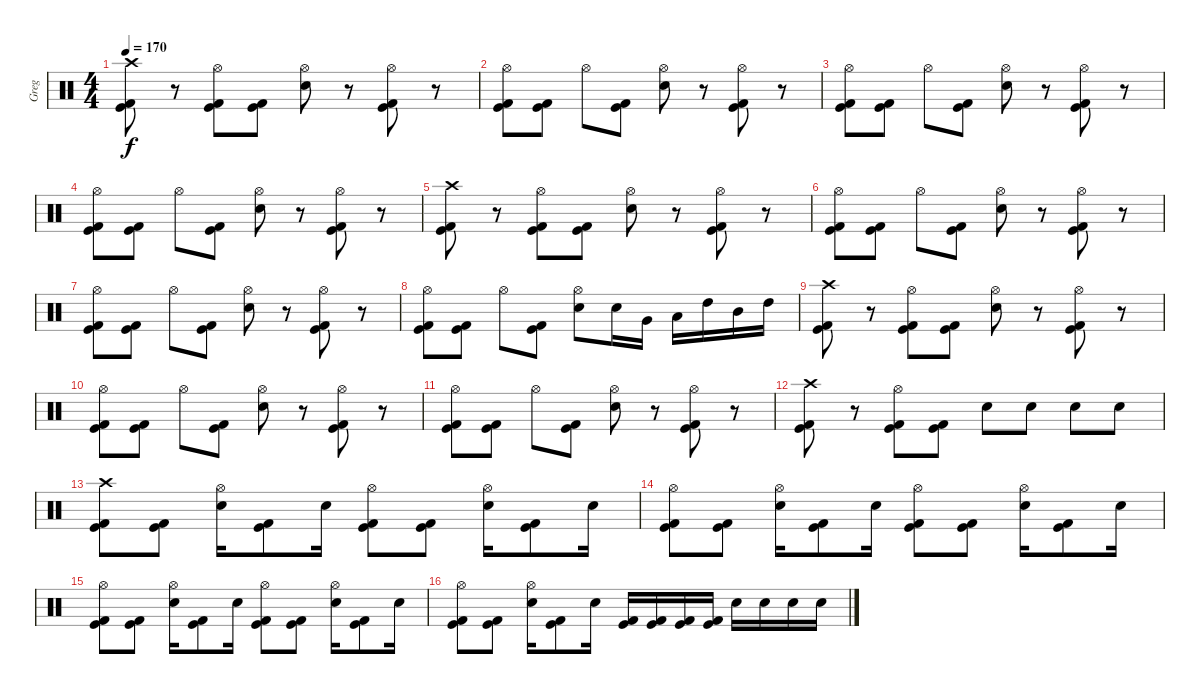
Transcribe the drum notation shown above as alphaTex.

\track ("Greg" "Greg") {instrument percussion}
\staff {score}
\articulation defaults
\ts (4 4)
\tempo 170
\clef neutral
\ks c
("Crash high (hit)" "Kick (hit)" "Kick (hit) 2").8{dy f} r.8 ("Hi-Hat (open)" "Kick (hit)" "Kick (hit) 2").8 ("Kick (hit)" "Kick (hit) 2").8 ("Hi-Hat (open)" "Snare (hit) 2").8 r.8 ("Hi-Hat (open)" "Kick (hit)" "Kick (hit) 2").8 r.8 |
("Hi-Hat (open)" "Kick (hit)" "Kick (hit) 2").8 ("Kick (hit)" "Kick (hit) 2").8 "Hi-Hat (open)".8 ("Kick (hit)" "Kick (hit) 2").8 ("Hi-Hat (open)" "Snare (hit) 2").8 r.8 ("Hi-Hat (open)" "Kick (hit)" "Kick (hit) 2").8 r.8 |
("Hi-Hat (open)" "Kick (hit)" "Kick (hit) 2").8 ("Kick (hit)" "Kick (hit) 2").8 "Hi-Hat (open)".8 ("Kick (hit)" "Kick (hit) 2").8 ("Hi-Hat (open)" "Snare (hit) 2").8 r.8 ("Hi-Hat (open)" "Kick (hit)" "Kick (hit) 2").8 r.8 |
("Hi-Hat (open)" "Kick (hit)" "Kick (hit) 2").8 ("Kick (hit)" "Kick (hit) 2").8 "Hi-Hat (open)".8 ("Kick (hit)" "Kick (hit) 2").8 ("Hi-Hat (open)" "Snare (hit) 2").8 r.8 ("Hi-Hat (open)" "Kick (hit)" "Kick (hit) 2").8 r.8 |
("Crash high (hit)" "Kick (hit)" "Kick (hit) 2").8 r.8 ("Hi-Hat (open)" "Kick (hit)" "Kick (hit) 2").8 ("Kick (hit)" "Kick (hit) 2").8 ("Hi-Hat (open)" "Snare (hit) 2").8 r.8 ("Hi-Hat (open)" "Kick (hit)" "Kick (hit) 2").8 r.8 |
("Hi-Hat (open)" "Kick (hit)" "Kick (hit) 2").8 ("Kick (hit)" "Kick (hit) 2").8 "Hi-Hat (open)".8 ("Kick (hit)" "Kick (hit) 2").8 ("Hi-Hat (open)" "Snare (hit) 2").8 r.8 ("Hi-Hat (open)" "Kick (hit)" "Kick (hit) 2").8 r.8 |
("Hi-Hat (open)" "Kick (hit)" "Kick (hit) 2").8 ("Kick (hit)" "Kick (hit) 2").8 "Hi-Hat (open)".8 ("Kick (hit)" "Kick (hit) 2").8 ("Hi-Hat (open)" "Snare (hit) 2").8 r.8 ("Hi-Hat (open)" "Kick (hit)" "Kick (hit) 2").8 r.8 |
("Hi-Hat (open)" "Kick (hit)" "Kick (hit) 2").8 ("Kick (hit)" "Kick (hit) 2").8 "Hi-Hat (open)".8 ("Kick (hit)" "Kick (hit) 2").8 ("Hi-Hat (open)" "Snare (hit) 2").8 "Snare (hit) 2".16 "Very Low Tom (hit)".16 "Low Tom (hit)".16 "High Tom (hit)".16 "Mid Tom (hit)".16 "High Tom (hit)".16 |
("Crash high (hit)" "Kick (hit)" "Kick (hit) 2").8 r.8 ("Hi-Hat (open)" "Kick (hit)" "Kick (hit) 2").8 ("Kick (hit)" "Kick (hit) 2").8 ("Hi-Hat (open)" "Snare (hit) 2").8 r.8 ("Hi-Hat (open)" "Kick (hit)" "Kick (hit) 2").8 r.8 |
("Hi-Hat (open)" "Kick (hit)" "Kick (hit) 2").8 ("Kick (hit)" "Kick (hit) 2").8 "Hi-Hat (open)".8 ("Kick (hit)" "Kick (hit) 2").8 ("Hi-Hat (open)" "Snare (hit) 2").8 r.8 ("Hi-Hat (open)" "Kick (hit)" "Kick (hit) 2").8 r.8 |
("Hi-Hat (open)" "Kick (hit)" "Kick (hit) 2").8 ("Kick (hit)" "Kick (hit) 2").8 "Hi-Hat (open)".8 ("Kick (hit)" "Kick (hit) 2").8 ("Hi-Hat (open)" "Snare (hit) 2").8 r.8 ("Hi-Hat (open)" "Kick (hit)" "Kick (hit) 2").8 r.8 |
("Crash high (hit)" "Kick (hit)" "Kick (hit) 2").8 r.8 ("Hi-Hat (open)" "Kick (hit)" "Kick (hit) 2").8 ("Kick (hit)" "Kick (hit) 2").8 "Snare (hit) 2".8 "Snare (hit) 2".8 "Snare (hit) 2".8 "Snare (hit) 2".8 |
("Crash high (hit)" "Kick (hit)" "Kick (hit) 2").8 ("Kick (hit)" "Kick (hit) 2").8 ("Hi-Hat (open)" "Snare (hit) 2").16 ("Kick (hit)" "Kick (hit) 2").8 "Snare (hit) 2".16 ("Hi-Hat (open)" "Kick (hit)" "Kick (hit) 2").8 ("Kick (hit)" "Kick (hit) 2").8 ("Hi-Hat (open)" "Snare (hit) 2").16 ("Kick (hit)" "Kick (hit) 2").8 "Snare (hit) 2".16 |
("Hi-Hat (open)" "Kick (hit)" "Kick (hit) 2").8 ("Kick (hit)" "Kick (hit) 2").8 ("Hi-Hat (open)" "Snare (hit) 2").16 ("Kick (hit)" "Kick (hit) 2").8 "Snare (hit) 2".16 ("Hi-Hat (open)" "Kick (hit)" "Kick (hit) 2").8 ("Kick (hit)" "Kick (hit) 2").8 ("Hi-Hat (open)" "Snare (hit) 2").16 ("Kick (hit)" "Kick (hit) 2").8 "Snare (hit) 2".16 |
("Hi-Hat (open)" "Kick (hit)" "Kick (hit) 2").8 ("Kick (hit)" "Kick (hit) 2").8 ("Hi-Hat (open)" "Snare (hit) 2").16 ("Kick (hit)" "Kick (hit) 2").8 "Snare (hit) 2".16 ("Hi-Hat (open)" "Kick (hit)" "Kick (hit) 2").8 ("Kick (hit)" "Kick (hit) 2").8 ("Hi-Hat (open)" "Snare (hit) 2").16 ("Kick (hit)" "Kick (hit) 2").8 "Snare (hit) 2".16 |
("Hi-Hat (open)" "Kick (hit)" "Kick (hit) 2").8 ("Kick (hit)" "Kick (hit) 2").8 ("Hi-Hat (open)" "Snare (hit) 2").16 ("Kick (hit)" "Kick (hit) 2").8 "Snare (hit) 2".16 ("Kick (hit)" "Kick (hit) 2").16 ("Kick (hit)" "Kick (hit) 2").16 ("Kick (hit)" "Kick (hit) 2").16 ("Kick (hit)" "Kick (hit) 2").16 "Snare (hit) 2".16 "Snare (hit) 2".16 "Snare (hit) 2".16 "Snare (hit) 2".16
